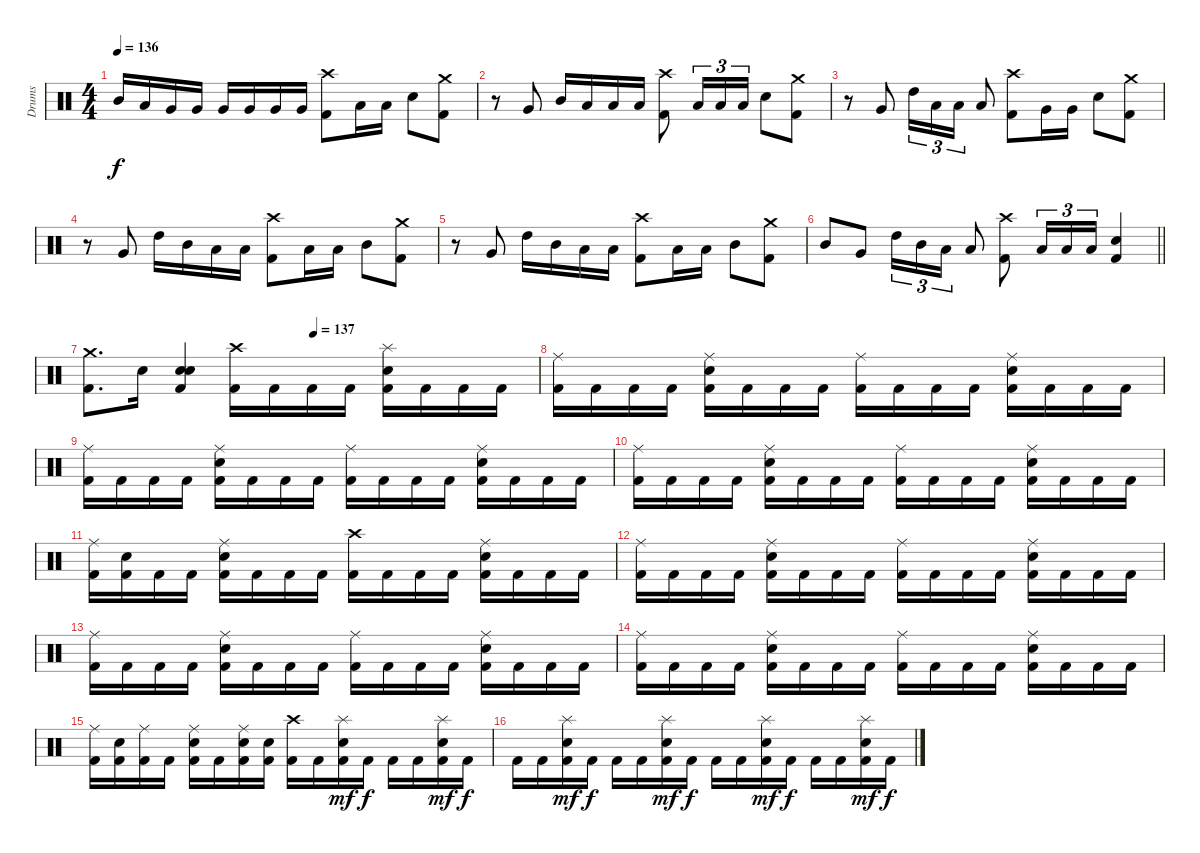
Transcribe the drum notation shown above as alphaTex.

\track ("Drums" "Drums") {instrument percussion}
\staff {score}
\articulation defaults
\ts (4 4)
\tempo 136
\clef neutral
\ks c "Mid Tom (hit)".16{dy f} "Low Tom (hit)".16 "Very Low Tom (hit)".16 "Very Low Tom (hit)".16 "Very Low Tom (hit)".16 "Very Low Tom (hit)".16 "Very Low Tom (hit)".16 "Very Low Tom (hit)".16
("Crash high (hit)" "Kick (hit) 2").8 "Low Tom (hit)".16 "Low Tom (hit)".16 "Electric Snare (hit)".8 ("Crash medium (hit)" "Kick (hit) 2").8 |
r.8 "Very Low Tom (hit)".8 "Mid Tom (hit)".16 "Low Tom (hit)".16 "Low Tom (hit)".16 "Low Tom (hit)".16 ("Crash high (hit)" "Kick (hit) 2").8 "Low Tom (hit)".16{tu (3 2)} "Low Tom (hit)".16{tu (3 2)} "Low Tom (hit)".16{tu (3 2)} "Electric Snare (hit)".8 ("Crash medium (hit)" "Kick (hit) 2").8 |
r.8 "Very Low Tom (hit)".8 "High Tom (hit)".16{tu (3 2)} "Low Tom (hit)".16{tu (3 2)} "Low Tom (hit)".16{tu (3 2)} "Low Tom (hit)".8 ("Crash high (hit)" "Kick (hit) 2").8 "Very Low Tom (hit)".16 "Very Low Tom (hit)".16 "Electric Snare (hit)".8 ("Crash medium (hit)" "Kick (hit) 2").8 |
r.8 "Very Low Tom (hit)".8 "High Tom (hit)".16 "Mid Tom (hit)".16 "Low Tom (hit)".16 "Low Tom (hit)".16 ("Crash high (hit)" "Kick (hit) 2").8 "Low Tom (hit)".16 "Low Tom (hit)".16 "Mid Tom (hit)".8 ("Crash medium (hit)" "Kick (hit) 2").8 |
r.8 "Very Low Tom (hit)".8 "High Tom (hit)".16 "Mid Tom (hit)".16 "Low Tom (hit)".16 "Low Tom (hit)".16 ("Crash high (hit)" "Kick (hit) 2").8 "Low Tom (hit)".16 "Low Tom (hit)".16 "Mid Tom (hit)".8 ("Crash medium (hit)" "Kick (hit) 2").8 |
\barLineRight lightlight "Mid Tom (hit)".8 "Very Low Tom (hit)".8 "High Tom (hit)".16{tu (3 2)} "Mid Tom (hit)".16{tu (3 2)} "Low Tom (hit)".16{tu (3 2)} "Low Tom (hit)".8
("Crash high (hit)" "Kick (hit) 2").8 "Low Tom (hit)".16{tu (3 2)} "Low Tom (hit)".16{tu (3 2)} "Low Tom (hit)".16{tu (3 2)} ("Electric Snare (hit)" "Kick (hit) 2").4 |
\section ("" "")
\tempo (137 0.5)
("Crash medium (hit)" "Kick (hit) 2").8{d} "Electric Snare (hit)".16 ("Snare (hit) 2" "Electric Snare (hit)" "Kick (hit) 2").4 ("Crash high (hit)" "Kick (hit) 2").16 "Kick (hit) 2".16 "Kick (hit) 2".16 "Kick (hit) 2".16 ("Splash (hit)" "Electric Snare (hit)" "Kick (hit) 2").16 "Kick (hit) 2".16 "Kick (hit) 2".16 "Kick (hit) 2".16 |
("Ride (middle)" "Kick (hit) 2").16 "Kick (hit) 2".16 "Kick (hit) 2".16 "Kick (hit) 2".16 ("Ride (middle)" "Electric Snare (hit)" "Kick (hit) 2").16 "Kick (hit) 2".16 "Kick (hit) 2".16 "Kick (hit) 2".16 ("Ride (middle)" "Kick (hit) 2").16 "Kick (hit) 2".16 "Kick (hit) 2".16 "Kick (hit) 2".16 ("Ride (middle)" "Electric Snare (hit)" "Kick (hit) 2").16 "Kick (hit) 2".16 "Kick (hit) 2".16 "Kick (hit) 2".16 |
("Ride (middle)" "Kick (hit) 2").16 "Kick (hit) 2".16 "Kick (hit) 2".16 "Kick (hit) 2".16 ("Ride (middle)" "Electric Snare (hit)" "Kick (hit) 2").16 "Kick (hit) 2".16 "Kick (hit) 2".16 "Kick (hit) 2".16 ("Ride (middle)" "Kick (hit) 2").16 "Kick (hit) 2".16 "Kick (hit) 2".16 "Kick (hit) 2".16 ("Ride (middle)" "Electric Snare (hit)" "Kick (hit) 2").16 "Kick (hit) 2".16 "Kick (hit) 2".16 "Kick (hit) 2".16 |
("Ride (middle)" "Kick (hit) 2").16 "Kick (hit) 2".16 "Kick (hit) 2".16 "Kick (hit) 2".16 ("Ride (middle)" "Electric Snare (hit)" "Kick (hit) 2").16 "Kick (hit) 2".16 "Kick (hit) 2".16 "Kick (hit) 2".16 ("Ride (middle)" "Kick (hit) 2").16 "Kick (hit) 2".16 "Kick (hit) 2".16 "Kick (hit) 2".16 ("Ride (middle)" "Electric Snare (hit)" "Kick (hit) 2").16 "Kick (hit) 2".16 "Kick (hit) 2".16 "Kick (hit) 2".16 |
("Ride (middle)" "Kick (hit) 2").16 ("Snare (hit) 2" "Kick (hit) 2").16 "Kick (hit) 2".16 "Kick (hit) 2".16 ("Ride (middle)" "Snare (hit) 2" "Kick (hit) 2").16 "Kick (hit) 2".16 "Kick (hit) 2".16 "Kick (hit) 2".16 ("Crash high (hit)" "Kick (hit) 2").16 "Kick (hit) 2".16 "Kick (hit) 2".16 "Kick (hit) 2".16 ("Ride (middle)" "Electric Snare (hit)" "Kick (hit) 2").16 "Kick (hit) 2".16 "Kick (hit) 2".16 "Kick (hit) 2".16 |
("Ride (middle)" "Kick (hit) 2").16 "Kick (hit) 2".16 "Kick (hit) 2".16 "Kick (hit) 2".16 ("Ride (middle)" "Electric Snare (hit)" "Kick (hit) 2").16 "Kick (hit) 2".16 "Kick (hit) 2".16 "Kick (hit) 2".16 ("Ride (middle)" "Kick (hit) 2").16 "Kick (hit) 2".16 "Kick (hit) 2".16 "Kick (hit) 2".16 ("Ride (middle)" "Electric Snare (hit)" "Kick (hit) 2").16 "Kick (hit) 2".16 "Kick (hit) 2".16 "Kick (hit) 2".16 |
("Ride (middle)" "Kick (hit) 2").16 "Kick (hit) 2".16 "Kick (hit) 2".16 "Kick (hit) 2".16 ("Ride (middle)" "Electric Snare (hit)" "Kick (hit) 2").16 "Kick (hit) 2".16 "Kick (hit) 2".16 "Kick (hit) 2".16 ("Ride (middle)" "Kick (hit) 2").16 "Kick (hit) 2".16 "Kick (hit) 2".16 "Kick (hit) 2".16 ("Ride (middle)" "Electric Snare (hit)" "Kick (hit) 2").16 "Kick (hit) 2".16 "Kick (hit) 2".16 "Kick (hit) 2".16 |
("Ride (middle)" "Kick (hit) 2").16 "Kick (hit) 2".16 "Kick (hit) 2".16 "Kick (hit) 2".16 ("Ride (middle)" "Electric Snare (hit)" "Kick (hit) 2").16 "Kick (hit) 2".16 "Kick (hit) 2".16 "Kick (hit) 2".16 ("Ride (middle)" "Kick (hit) 2").16 "Kick (hit) 2".16 "Kick (hit) 2".16 "Kick (hit) 2".16 ("Ride (middle)" "Electric Snare (hit)" "Kick (hit) 2").16 "Kick (hit) 2".16 "Kick (hit) 2".16 "Kick (hit) 2".16 |
("Ride (middle)" "Kick (hit) 2").16 ("Electric Snare (hit)" "Kick (hit) 2").16 ("Ride (middle)" "Kick (hit) 2").16 "Kick (hit) 2".16 ("Ride (middle)" "Electric Snare (hit)" "Kick (hit) 2").16 "Kick (hit) 2".16 ("Ride (middle)" "Electric Snare (hit)" "Kick (hit) 2").16 ("Electric Snare (hit)" "Kick (hit) 2").16 ("Crash high (hit)" "Kick (hit) 2").16 "Kick (hit) 2".16 ("Splash (hit)" "Electric Snare (hit)" "Kick (hit) 2").16{dy mf} "Kick (hit) 2".16{dy f} "Kick (hit) 2".16 "Kick (hit) 2".16 ("Splash (hit)" "Electric Snare (hit)" "Kick (hit) 2").16{dy mf} "Kick (hit) 2".16{dy f} |
"Kick (hit) 2".16 "Kick (hit) 2".16 ("Splash (hit)" "Electric Snare (hit)" "Kick (hit) 2").16{dy mf} "Kick (hit) 2".16{dy f} "Kick (hit) 2".16 "Kick (hit) 2".16 ("Splash (hit)" "Electric Snare (hit)" "Kick (hit) 2").16{dy mf} "Kick (hit) 2".16{dy f} "Kick (hit) 2".16 "Kick (hit) 2".16 ("Splash (hit)" "Electric Snare (hit)" "Kick (hit) 2").16{dy mf} "Kick (hit) 2".16{dy f} "Kick (hit) 2".16 "Kick (hit) 2".16 ("Splash (hit)" "Electric Snare (hit)" "Kick (hit) 2").16{dy mf} "Kick (hit) 2".16{dy f}
